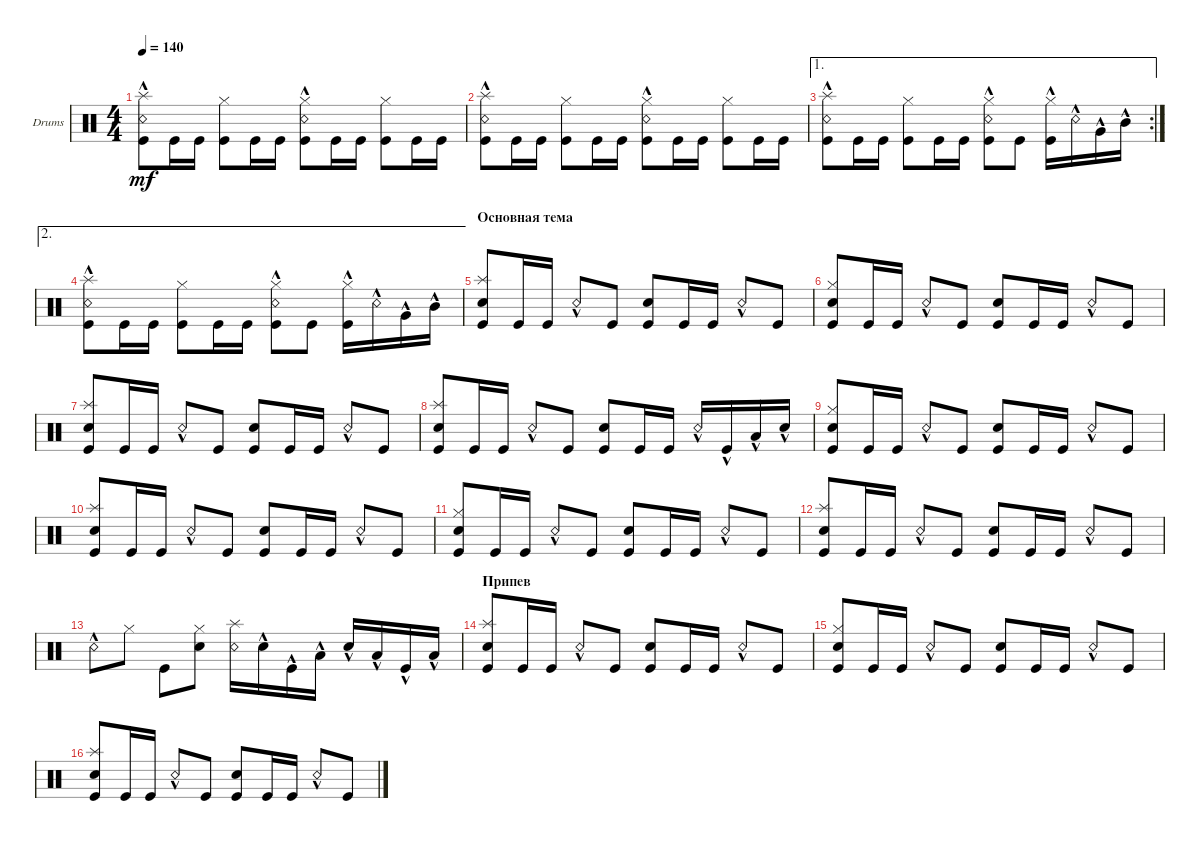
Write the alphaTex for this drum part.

\bracketExtendMode groupsimilarinstruments
\firstSystemTrackNameOrientation horizontal
\otherSystemsTrackNameOrientation horizontal
\track ("БАРАБАНЫ" "Drums") {solo instrument percussion}
\staff {score}
\articulation defaults
\ts (4 4)
\tempo 140
\clef neutral
\ks c
("Kick (hit)" "Snare (rim shot)"{hac} "Splash (hit)").8{dy mf} "Kick (hit)".16 "Kick (hit)".16 ("Kick (hit)" "Hi-Hat (closed)").8 "Kick (hit)".16 "Kick (hit)".16 ("Kick (hit)" "Snare (rim shot)"{hac} "Hi-Hat (closed)").8 "Kick (hit)".16 "Kick (hit)".16 ("Kick (hit)" "Hi-Hat (closed)").8 "Kick (hit)".16 "Kick (hit)".16 |
("Kick (hit)" "Snare (rim shot)"{hac} "Splash (hit)").8 "Kick (hit)".16 "Kick (hit)".16 ("Kick (hit)" "Hi-Hat (closed)").8 "Kick (hit)".16 "Kick (hit)".16 ("Kick (hit)" "Snare (rim shot)"{hac} "Hi-Hat (closed)").8 "Kick (hit)".16 "Kick (hit)".16 ("Kick (hit)" "Hi-Hat (closed)").8 "Kick (hit)".16 "Kick (hit)".16 |
\ae 1
\rc 2
("Kick (hit)" "Snare (rim shot)"{hac} "Splash (hit)").8 "Kick (hit)".16 "Kick (hit)".16 ("Kick (hit)" "Hi-Hat (closed)").8 "Kick (hit)".16 "Kick (hit)".16 ("Kick (hit)" "Snare (rim shot)"{hac} "Hi-Hat (closed)").8 "Kick (hit)".8 ("Kick (hit)"{hac} "Hi-Hat (closed)"{hac}).16 "Snare (rim shot)"{hac}.16 "Very Low Tom (hit)"{hac}.16 "Mid Tom (hit)"{hac}.16 |
\ae 2
("Kick (hit)" "Snare (rim shot)"{hac} "Splash (hit)").8 "Kick (hit)".16 "Kick (hit)".16 ("Kick (hit)" "Hi-Hat (closed)").8 "Kick (hit)".16 "Kick (hit)".16 ("Kick (hit)" "Snare (rim shot)"{hac} "Hi-Hat (closed)").8 "Kick (hit)".8 ("Kick (hit)"{hac} "Hi-Hat (closed)"{hac}).16 "Snare (rim shot)"{hac}.16 "Very Low Tom (hit)"{hac}.16 "Mid Tom (hit)"{hac}.16 |
\section ("" "Основная тема")
("Kick (hit)" "Snare (hit) 2" "Splash (hit)").8 "Kick (hit)".16 "Kick (hit)".16 "Snare (rim shot)"{hac}.8 "Kick (hit)".8 ("Kick (hit)" "Snare (hit) 2").8 "Kick (hit)".16 "Kick (hit)".16 "Snare (rim shot)"{hac}.8 "Kick (hit)".8 |
("Kick (hit)" "Snare (hit) 2" "Hi-Hat (closed)").8 "Kick (hit)".16 "Kick (hit)".16 "Snare (rim shot)"{hac}.8 "Kick (hit)".8 ("Kick (hit)" "Snare (hit) 2").8 "Kick (hit)".16 "Kick (hit)".16 "Snare (rim shot)"{hac}.8 "Kick (hit)".8 |
("Kick (hit)" "Snare (hit) 2" "Splash (hit)").8 "Kick (hit)".16 "Kick (hit)".16 "Snare (rim shot)"{hac}.8 "Kick (hit)".8 ("Kick (hit)" "Snare (hit) 2").8 "Kick (hit)".16 "Kick (hit)".16 "Snare (rim shot)"{hac}.8 "Kick (hit)".8 |
("Kick (hit)" "Snare (hit) 2" "Splash (hit)").8 "Kick (hit)".16 "Kick (hit)".16 "Snare (rim shot)"{hac}.8 "Kick (hit)".8 ("Kick (hit)" "Snare (hit) 2").8 "Kick (hit)".16 "Kick (hit)".16 "Snare (rim shot)"{hac}.16 "Kick (hit)"{hac}.16 "Low Tom (hit)"{hac}.16 "Snare (hit) 2"{hac}.16 |
("Kick (hit)" "Snare (hit) 2" "Hi-Hat (closed)").8 "Kick (hit)".16 "Kick (hit)".16 "Snare (rim shot)"{hac}.8 "Kick (hit)".8 ("Kick (hit)" "Snare (hit) 2").8 "Kick (hit)".16 "Kick (hit)".16 "Snare (rim shot)"{hac}.8 "Kick (hit)".8 |
("Kick (hit)" "Snare (hit) 2" "Splash (hit)").8 "Kick (hit)".16 "Kick (hit)".16 "Snare (rim shot)"{hac}.8 "Kick (hit)".8 ("Kick (hit)" "Snare (hit) 2").8 "Kick (hit)".16 "Kick (hit)".16 "Snare (rim shot)"{hac}.8 "Kick (hit)".8 |
("Kick (hit)" "Snare (hit) 2" "Hi-Hat (closed)").8 "Kick (hit)".16 "Kick (hit)".16 "Snare (rim shot)"{hac}.8 "Kick (hit)".8 ("Kick (hit)" "Snare (hit) 2").8 "Kick (hit)".16 "Kick (hit)".16 "Snare (rim shot)"{hac}.8 "Kick (hit)".8 |
("Kick (hit)" "Snare (hit) 2" "Splash (hit)").8 "Kick (hit)".16 "Kick (hit)".16 "Snare (rim shot)"{hac}.8 "Kick (hit)".8 ("Kick (hit)" "Snare (hit) 2").8 "Kick (hit)".16 "Kick (hit)".16 "Snare (rim shot)"{hac}.8 "Kick (hit)".8 |
"Snare (rim shot)"{hac}.8 "Hi-Hat (closed)".8 "Kick (hit)".8 ("Hi-Hat (closed)" "Snare (hit) 2").8 ("Snare (rim shot)" "Splash (hit)").16 "Snare (hit) 2"{hac}.16 "Kick (hit)"{hac}.16 "Low Tom (hit)"{hac}.16 "Snare (hit) 2"{hac}.16 "Low Tom (hit)"{hac}.16 "Kick (hit)"{hac}.16 "Low Tom (hit)"{hac}.16 |
\section ("" "Припев")
("Kick (hit)" "Snare (hit) 2" "Splash (hit)").8 "Kick (hit)".16 "Kick (hit)".16 "Snare (rim shot)"{hac}.8 "Kick (hit)".8 ("Kick (hit)" "Snare (hit) 2").8 "Kick (hit)".16 "Kick (hit)".16 "Snare (rim shot)"{hac}.8 "Kick (hit)".8 |
("Kick (hit)" "Snare (hit) 2" "Hi-Hat (closed)").8 "Kick (hit)".16 "Kick (hit)".16 "Snare (rim shot)"{hac}.8 "Kick (hit)".8 ("Kick (hit)" "Snare (hit) 2").8 "Kick (hit)".16 "Kick (hit)".16 "Snare (rim shot)"{hac}.8 "Kick (hit)".8 |
("Kick (hit)" "Snare (hit) 2" "Splash (hit)").8 "Kick (hit)".16 "Kick (hit)".16 "Snare (rim shot)"{hac}.8 "Kick (hit)".8 ("Kick (hit)" "Snare (hit) 2").8 "Kick (hit)".16 "Kick (hit)".16 "Snare (rim shot)"{hac}.8 "Kick (hit)".8
